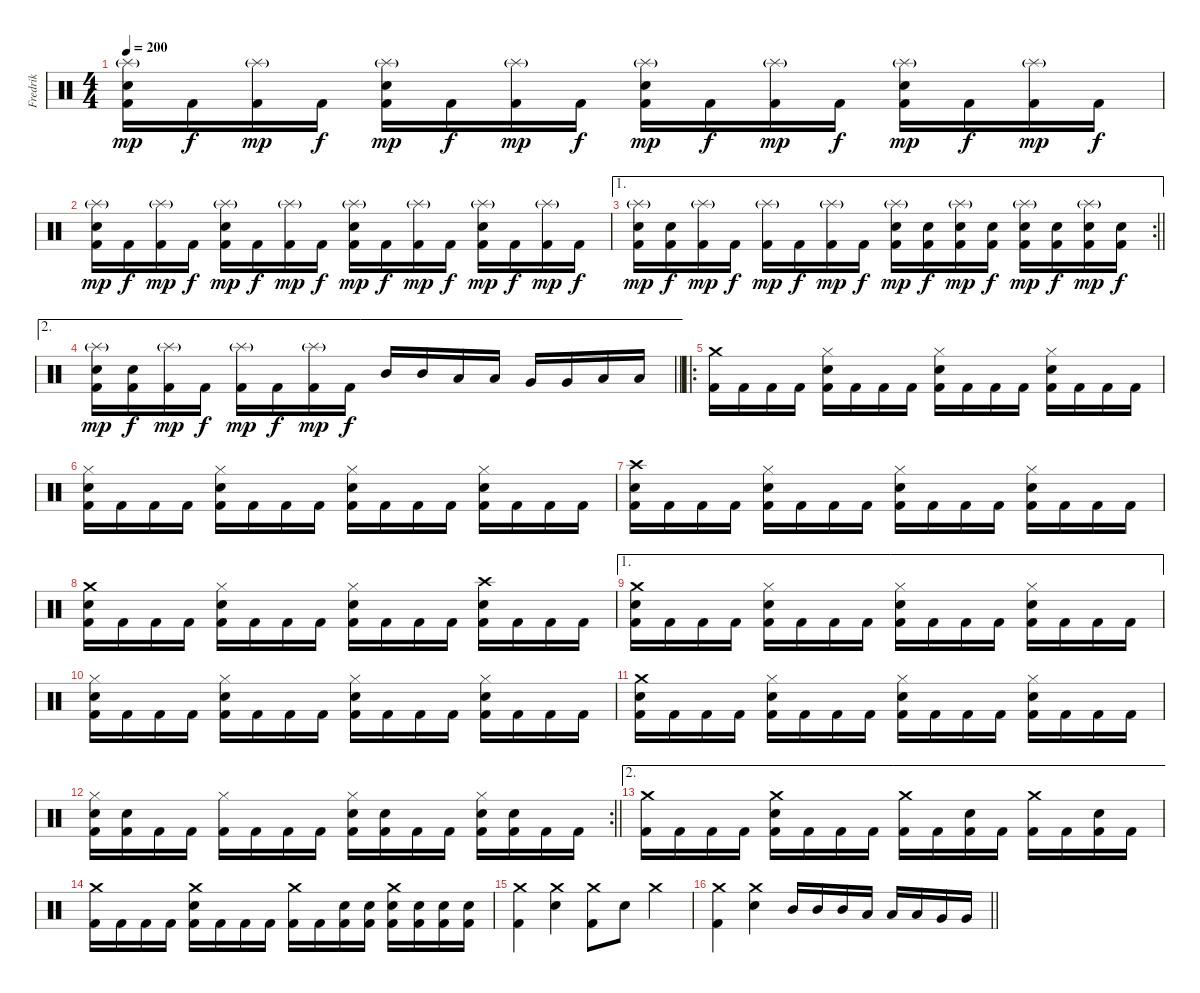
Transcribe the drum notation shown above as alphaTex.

\track ("Fredrik" "Fredrik") {instrument percussion}
\staff {score}
\articulation defaults
\ts (4 4)
\tempo 200
\clef neutral
\ks c
("Kick (hit) 2" "Snare (hit) 2" "Splash (hit)"{g}).16{dy mp} "Kick (hit) 2".16{dy f} ("Kick (hit) 2" "Splash (hit)"{g}).16{dy mp} "Kick (hit) 2".16{dy f} ("Kick (hit) 2" "Snare (hit) 2" "Splash (hit)"{g}).16{dy mp} "Kick (hit) 2".16{dy f} ("Kick (hit) 2" "Splash (hit)"{g}).16{dy mp} "Kick (hit) 2".16{dy f} ("Kick (hit) 2" "Snare (hit) 2" "Splash (hit)"{g}).16{dy mp} "Kick (hit) 2".16{dy f} ("Kick (hit) 2" "Splash (hit)"{g}).16{dy mp} "Kick (hit) 2".16{dy f} ("Kick (hit) 2" "Snare (hit) 2" "Splash (hit)"{g}).16{dy mp} "Kick (hit) 2".16{dy f} ("Kick (hit) 2" "Splash (hit)"{g}).16{dy mp} "Kick (hit) 2".16{dy f} |
("Kick (hit) 2" "Snare (hit) 2" "Splash (hit)"{g}).16{dy mp} "Kick (hit) 2".16{dy f} ("Kick (hit) 2" "Splash (hit)"{g}).16{dy mp} "Kick (hit) 2".16{dy f} ("Kick (hit) 2" "Snare (hit) 2" "Splash (hit)"{g}).16{dy mp} "Kick (hit) 2".16{dy f} ("Kick (hit) 2" "Splash (hit)"{g}).16{dy mp} "Kick (hit) 2".16{dy f} ("Kick (hit) 2" "Snare (hit) 2" "Splash (hit)"{g}).16{dy mp} "Kick (hit) 2".16{dy f} ("Kick (hit) 2" "Splash (hit)"{g}).16{dy mp} "Kick (hit) 2".16{dy f} ("Kick (hit) 2" "Snare (hit) 2" "Splash (hit)"{g}).16{dy mp} "Kick (hit) 2".16{dy f} ("Kick (hit) 2" "Splash (hit)"{g}).16{dy mp} "Kick (hit) 2".16{dy f} |
\ae 1
\rc 2
\barLineRight lightlight
("Kick (hit) 2" "Snare (hit) 2" "Splash (hit)"{g}).16{dy mp} ("Kick (hit) 2" "Snare (hit) 2").16{dy f} ("Kick (hit) 2" "Splash (hit)"{g}).16{dy mp} "Kick (hit) 2".16{dy f} ("Kick (hit) 2" "Splash (hit)"{g}).16{dy mp} "Kick (hit) 2".16{dy f} ("Kick (hit) 2" "Splash (hit)"{g}).16{dy mp} "Kick (hit) 2".16{dy f} ("Kick (hit) 2" "Snare (hit) 2" "Splash (hit)"{g}).16{dy mp} ("Kick (hit) 2" "Snare (hit) 2").16{dy f} ("Kick (hit) 2" "Snare (hit) 2" "Splash (hit)"{g}).16{dy mp} ("Kick (hit) 2" "Snare (hit) 2").16{dy f} ("Kick (hit) 2" "Snare (hit) 2" "Splash (hit)"{g}).16{dy mp} ("Kick (hit) 2" "Snare (hit) 2").16{dy f} ("Kick (hit) 2" "Snare (hit) 2" "Splash (hit)"{g}).16{dy mp} ("Kick (hit) 2" "Snare (hit) 2").16{dy f} |
\ae 2
\barLineRight lightlight
("Kick (hit) 2" "Snare (hit) 2" "Splash (hit)"{g}).16{dy mp} ("Kick (hit) 2" "Snare (hit) 2").16{dy f} ("Kick (hit) 2" "Splash (hit)"{g}).16{dy mp} "Kick (hit) 2".16{dy f} ("Kick (hit) 2" "Splash (hit)"{g}).16{dy mp} "Kick (hit) 2".16{dy f} ("Kick (hit) 2" "Splash (hit)"{g}).16{dy mp} "Kick (hit) 2".16{dy f} "Mid Tom (hit)".16 "Mid Tom (hit)".16 "Low Tom (hit)".16 "Low Tom (hit)".16 "Very Low Tom (hit)".16 "Very Low Tom (hit)".16 "Low Floor Tom (hit)".16 "Low Floor Tom (hit)".16 |
\ro
\section ("" "")
("Kick (hit) 2" "Crash medium (hit)").16 "Kick (hit) 2".16 "Kick (hit) 2".16 "Kick (hit) 2".16 ("Kick (hit) 2" "Snare (hit) 2" "Hi-Hat (closed)").16 "Kick (hit) 2".16 "Kick (hit) 2".16 "Kick (hit) 2".16 ("Kick (hit) 2" "Snare (hit) 2" "Hi-Hat (closed)").16 "Kick (hit) 2".16 "Kick (hit) 2".16 "Kick (hit) 2".16 ("Kick (hit) 2" "Snare (hit) 2" "Hi-Hat (closed)").16 "Kick (hit) 2".16 "Kick (hit) 2".16 "Kick (hit) 2".16 |
("Kick (hit) 2" "Snare (hit) 2" "Hi-Hat (closed)").16 "Kick (hit) 2".16 "Kick (hit) 2".16 "Kick (hit) 2".16 ("Kick (hit) 2" "Snare (hit) 2" "Hi-Hat (closed)").16 "Kick (hit) 2".16 "Kick (hit) 2".16 "Kick (hit) 2".16 ("Kick (hit) 2" "Snare (hit) 2" "Hi-Hat (closed)").16 "Kick (hit) 2".16 "Kick (hit) 2".16 "Kick (hit) 2".16 ("Kick (hit) 2" "Snare (hit) 2" "Hi-Hat (closed)").16 "Kick (hit) 2".16 "Kick (hit) 2".16 "Kick (hit) 2".16 |
("Kick (hit) 2" "Snare (hit) 2" "Crash high (hit)").16 "Kick (hit) 2".16 "Kick (hit) 2".16 "Kick (hit) 2".16 ("Kick (hit) 2" "Snare (hit) 2" "Hi-Hat (closed)").16 "Kick (hit) 2".16 "Kick (hit) 2".16 "Kick (hit) 2".16 ("Kick (hit) 2" "Snare (hit) 2" "Hi-Hat (closed)").16 "Kick (hit) 2".16 "Kick (hit) 2".16 "Kick (hit) 2".16 ("Kick (hit) 2" "Snare (hit) 2" "Hi-Hat (closed)").16 "Kick (hit) 2".16 "Kick (hit) 2".16 "Kick (hit) 2".16 |
("Kick (hit) 2" "Snare (hit) 2" "Crash medium (hit)").16 "Kick (hit) 2".16 "Kick (hit) 2".16 "Kick (hit) 2".16 ("Kick (hit) 2" "Snare (hit) 2" "Hi-Hat (closed)").16 "Kick (hit) 2".16 "Kick (hit) 2".16 "Kick (hit) 2".16 ("Kick (hit) 2" "Snare (hit) 2" "Hi-Hat (closed)").16 "Kick (hit) 2".16 "Kick (hit) 2".16 "Kick (hit) 2".16 ("Kick (hit) 2" "Snare (hit) 2" "Crash high (hit)").16 "Kick (hit) 2".16 "Kick (hit) 2".16 "Kick (hit) 2".16 |
\ae 1
("Kick (hit) 2" "Snare (hit) 2" "Crash medium (hit)").16 "Kick (hit) 2".16 "Kick (hit) 2".16 "Kick (hit) 2".16 ("Kick (hit) 2" "Snare (hit) 2" "Hi-Hat (closed)").16 "Kick (hit) 2".16 "Kick (hit) 2".16 "Kick (hit) 2".16 ("Kick (hit) 2" "Snare (hit) 2" "Hi-Hat (closed)").16 "Kick (hit) 2".16 "Kick (hit) 2".16 "Kick (hit) 2".16 ("Kick (hit) 2" "Snare (hit) 2" "Hi-Hat (closed)").16 "Kick (hit) 2".16 "Kick (hit) 2".16 "Kick (hit) 2".16 |
("Kick (hit) 2" "Snare (hit) 2" "Hi-Hat (closed)").16 "Kick (hit) 2".16 "Kick (hit) 2".16 "Kick (hit) 2".16 ("Kick (hit) 2" "Snare (hit) 2" "Hi-Hat (closed)").16 "Kick (hit) 2".16 "Kick (hit) 2".16 "Kick (hit) 2".16 ("Kick (hit) 2" "Snare (hit) 2" "Hi-Hat (closed)").16 "Kick (hit) 2".16 "Kick (hit) 2".16 "Kick (hit) 2".16 ("Kick (hit) 2" "Snare (hit) 2" "Hi-Hat (closed)").16 "Kick (hit) 2".16 "Kick (hit) 2".16 "Kick (hit) 2".16 |
("Kick (hit) 2" "Snare (hit) 2" "Crash medium (hit)").16 "Kick (hit) 2".16 "Kick (hit) 2".16 "Kick (hit) 2".16 ("Kick (hit) 2" "Snare (hit) 2" "Hi-Hat (closed)").16 "Kick (hit) 2".16 "Kick (hit) 2".16 "Kick (hit) 2".16 ("Kick (hit) 2" "Snare (hit) 2" "Hi-Hat (closed)").16 "Kick (hit) 2".16 "Kick (hit) 2".16 "Kick (hit) 2".16 ("Kick (hit) 2" "Snare (hit) 2" "Hi-Hat (closed)").16 "Kick (hit) 2".16 "Kick (hit) 2".16 "Kick (hit) 2".16 |
\rc 2
\barLineRight lightlight
("Kick (hit) 2" "Snare (hit) 2" "Hi-Hat (closed)").16 ("Kick (hit) 2" "Snare (hit) 2").16 "Kick (hit) 2".16 "Kick (hit) 2".16 ("Kick (hit) 2" "Hi-Hat (closed)").16 "Kick (hit) 2".16 "Kick (hit) 2".16 "Kick (hit) 2".16 ("Kick (hit) 2" "Snare (hit) 2" "Hi-Hat (closed)").16 ("Kick (hit) 2" "Snare (hit) 2").16 "Kick (hit) 2".16 "Kick (hit) 2".16 ("Kick (hit) 2" "Snare (hit) 2" "Hi-Hat (closed)").16 ("Kick (hit) 2" "Snare (hit) 2").16 "Kick (hit) 2".16 "Kick (hit) 2".16 |
\ae 2
\section ("" "")
("Kick (hit) 2" "Crash medium (hit)").16 "Kick (hit) 2".16 "Kick (hit) 2".16 "Kick (hit) 2".16 ("Kick (hit) 2" "Snare (hit) 2" "Crash medium (hit)").16 "Kick (hit) 2".16 "Kick (hit) 2".16 "Kick (hit) 2".16 ("Kick (hit) 2" "Crash medium (hit)").16 "Kick (hit) 2".16 ("Kick (hit) 2" "Snare (hit) 2").16 "Kick (hit) 2".16 ("Kick (hit) 2" "Crash medium (hit)").16 "Kick (hit) 2".16 ("Kick (hit) 2" "Snare (hit) 2").16 "Kick (hit) 2".16 |
("Kick (hit) 2" "Crash medium (hit)").16 "Kick (hit) 2".16 "Kick (hit) 2".16 "Kick (hit) 2".16 ("Kick (hit) 2" "Snare (hit) 2" "Crash medium (hit)").16 "Kick (hit) 2".16 "Kick (hit) 2".16 "Kick (hit) 2".16 ("Kick (hit) 2" "Crash medium (hit)").16 "Kick (hit) 2".16 ("Kick (hit) 2" "Snare (hit) 2").16 ("Kick (hit) 2" "Snare (hit) 2").16 ("Kick (hit) 2" "Snare (hit) 2" "Crash medium (hit)").16 ("Kick (hit) 2" "Snare (hit) 2").16 ("Kick (hit) 2" "Snare (hit) 2").16 ("Kick (hit) 2" "Snare (hit) 2").16 |
("Kick (hit) 2" "Crash medium (hit)").4 ("Snare (hit) 2" "Crash medium (hit)").4 ("Kick (hit) 2" "Crash medium (hit)").8 "Snare (hit) 2".8 "Crash medium (hit)".4 |
\barLineRight lightlight
("Kick (hit) 2" "Crash medium (hit)").4 ("Snare (hit) 2" "Crash medium (hit)").4 "Mid Tom (hit)".16 "Mid Tom (hit)".16 "Mid Tom (hit)".16 "Low Tom (hit)".16 "Low Tom (hit)".16 "Low Tom (hit)".16 "Very Low Tom (hit)".16 "Very Low Tom (hit)".16
